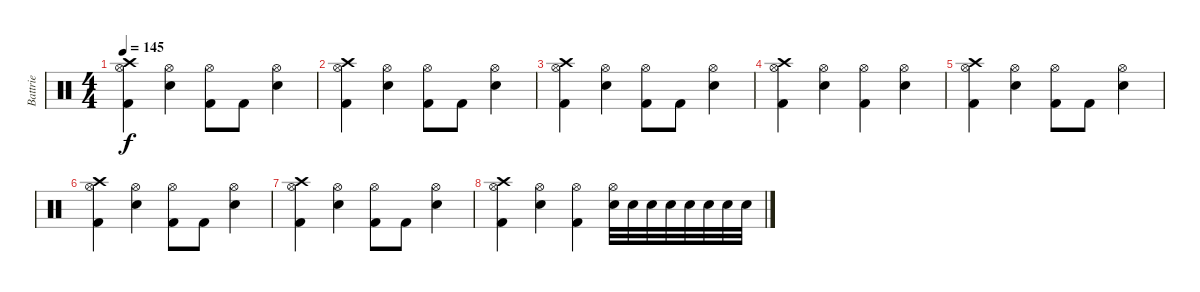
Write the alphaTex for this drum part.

\track ("Battrie" "Battrie") {instrument percussion}
\staff {score}
\articulation defaults
\ts (4 4)
\tempo 145
\clef neutral
\ks c
("Hi-Hat (open)" "Kick (hit) 2" "Crash high (hit)").4{dy f} ("Hi-Hat (open)" "Snare (hit) 2").4 ("Hi-Hat (open)" "Kick (hit) 2").8 "Kick (hit) 2".8 ("Hi-Hat (open)" "Snare (hit) 2").4 |
("Hi-Hat (open)" "Kick (hit) 2" "Crash high (hit)").4 ("Hi-Hat (open)" "Snare (hit) 2").4 ("Hi-Hat (open)" "Kick (hit) 2").8 "Kick (hit) 2".8 ("Hi-Hat (open)" "Snare (hit) 2").4 |
("Hi-Hat (open)" "Kick (hit) 2" "Crash high (hit)").4 ("Hi-Hat (open)" "Snare (hit) 2").4 ("Hi-Hat (open)" "Kick (hit) 2").8 "Kick (hit) 2".8 ("Hi-Hat (open)" "Snare (hit) 2").4 |
("Hi-Hat (open)" "Kick (hit) 2" "Crash high (hit)").4 ("Hi-Hat (open)" "Snare (hit) 2").4 ("Hi-Hat (open)" "Kick (hit) 2").4 ("Snare (hit) 2" "Hi-Hat (open)").4 |
("Hi-Hat (open)" "Kick (hit) 2" "Crash high (hit)").4 ("Hi-Hat (open)" "Snare (hit) 2").4 ("Hi-Hat (open)" "Kick (hit) 2").8 "Kick (hit) 2".8 ("Hi-Hat (open)" "Snare (hit) 2").4 |
("Hi-Hat (open)" "Kick (hit) 2" "Crash high (hit)").4 ("Hi-Hat (open)" "Snare (hit) 2").4 ("Hi-Hat (open)" "Kick (hit) 2").8 "Kick (hit) 2".8 ("Hi-Hat (open)" "Snare (hit) 2").4 |
("Hi-Hat (open)" "Kick (hit) 2" "Crash high (hit)").4 ("Hi-Hat (open)" "Snare (hit) 2").4 ("Hi-Hat (open)" "Kick (hit) 2").8 "Kick (hit) 2".8 ("Hi-Hat (open)" "Snare (hit) 2").4 |
("Hi-Hat (open)" "Kick (hit) 2" "Crash high (hit)").4 ("Hi-Hat (open)" "Snare (hit) 2").4 ("Hi-Hat (open)" "Kick (hit) 2").4 ("Snare (hit) 2" "Hi-Hat (open)").32 "Snare (hit) 2".32 "Snare (hit) 2".32 "Snare (hit) 2".32 "Snare (hit) 2".32 "Snare (hit) 2".32 "Snare (hit) 2".32 "Snare (hit) 2".32
